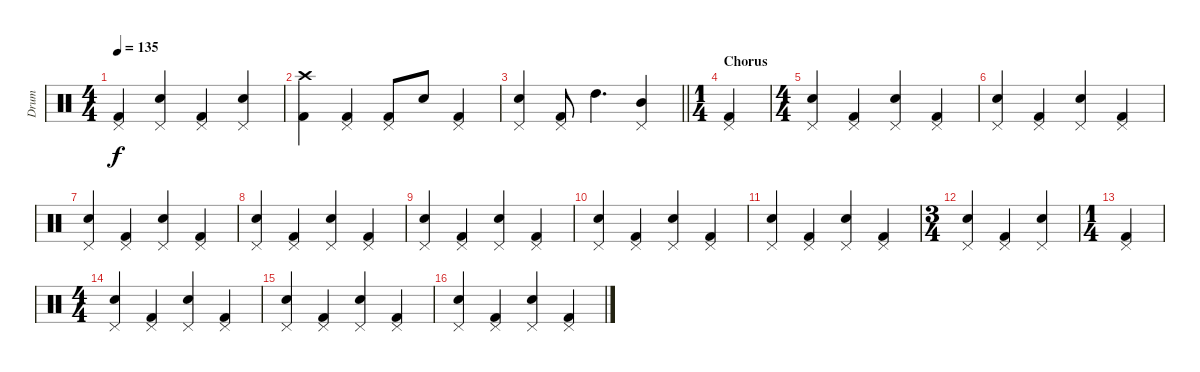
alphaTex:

\track ("Drum" "Drum") {instrument percussion}
\staff {score}
\articulation defaults
\ts (4 4)
\tempo 135
\clef neutral
\ks c
("Kick (hit) 2" "Pedal Hi-Hat (hit)").4{dy f} ("Electric Snare (hit)" "Pedal Hi-Hat (hit)").4 ("Kick (hit) 2" "Pedal Hi-Hat (hit)").4 ("Electric Snare (hit)" "Pedal Hi-Hat (hit)").4 |
("Crash high (hit)" "Kick (hit) 2").4 ("Pedal Hi-Hat (hit)" "Kick (hit) 2").4 ("Pedal Hi-Hat (hit)" "Kick (hit) 2").8 "Electric Snare (hit)".8 ("Pedal Hi-Hat (hit)" "Kick (hit) 2").4 |
\barLineRight lightlight
("Pedal Hi-Hat (hit)" "Snare (hit) 2").4 ("Pedal Hi-Hat (hit)" "Kick (hit) 2").8 "High Tom (hit)".4{d} ("Pedal Hi-Hat (hit)" "Mid Tom (hit)").4 |
\ts (1 4)
\section ("" "Chorus")
("Kick (hit) 2" "Pedal Hi-Hat (hit)").4 |
\ts (4 4)
("Electric Snare (hit)" "Pedal Hi-Hat (hit)").4 ("Kick (hit) 2" "Pedal Hi-Hat (hit)").4 ("Electric Snare (hit)" "Pedal Hi-Hat (hit)").4 ("Kick (hit) 2" "Pedal Hi-Hat (hit)").4 |
("Electric Snare (hit)" "Pedal Hi-Hat (hit)").4 ("Kick (hit) 2" "Pedal Hi-Hat (hit)").4 ("Electric Snare (hit)" "Pedal Hi-Hat (hit)").4 ("Kick (hit) 2" "Pedal Hi-Hat (hit)").4 |
("Electric Snare (hit)" "Pedal Hi-Hat (hit)").4 ("Kick (hit) 2" "Pedal Hi-Hat (hit)").4 ("Electric Snare (hit)" "Pedal Hi-Hat (hit)").4 ("Kick (hit) 2" "Pedal Hi-Hat (hit)").4 |
("Electric Snare (hit)" "Pedal Hi-Hat (hit)").4 ("Kick (hit) 2" "Pedal Hi-Hat (hit)").4 ("Electric Snare (hit)" "Pedal Hi-Hat (hit)").4 ("Kick (hit) 2" "Pedal Hi-Hat (hit)").4 |
("Electric Snare (hit)" "Pedal Hi-Hat (hit)").4 ("Kick (hit) 2" "Pedal Hi-Hat (hit)").4 ("Electric Snare (hit)" "Pedal Hi-Hat (hit)").4 ("Kick (hit) 2" "Pedal Hi-Hat (hit)").4 |
("Electric Snare (hit)" "Pedal Hi-Hat (hit)").4 ("Kick (hit) 2" "Pedal Hi-Hat (hit)").4 ("Electric Snare (hit)" "Pedal Hi-Hat (hit)").4 ("Kick (hit) 2" "Pedal Hi-Hat (hit)").4 |
("Electric Snare (hit)" "Pedal Hi-Hat (hit)").4 ("Kick (hit) 2" "Pedal Hi-Hat (hit)").4 ("Electric Snare (hit)" "Pedal Hi-Hat (hit)").4 ("Kick (hit) 2" "Pedal Hi-Hat (hit)").4 |
\ts (3 4)
("Electric Snare (hit)" "Pedal Hi-Hat (hit)").4 ("Kick (hit) 2" "Pedal Hi-Hat (hit)").4 ("Electric Snare (hit)" "Pedal Hi-Hat (hit)").4 |
\ts (1 4)
("Kick (hit) 2" "Pedal Hi-Hat (hit)").4 |
\ts (4 4)
("Electric Snare (hit)" "Pedal Hi-Hat (hit)").4 ("Kick (hit) 2" "Pedal Hi-Hat (hit)").4 ("Electric Snare (hit)" "Pedal Hi-Hat (hit)").4 ("Kick (hit) 2" "Pedal Hi-Hat (hit)").4 |
("Electric Snare (hit)" "Pedal Hi-Hat (hit)").4 ("Kick (hit) 2" "Pedal Hi-Hat (hit)").4 ("Electric Snare (hit)" "Pedal Hi-Hat (hit)").4 ("Kick (hit) 2" "Pedal Hi-Hat (hit)").4 |
("Electric Snare (hit)" "Pedal Hi-Hat (hit)").4 ("Kick (hit) 2" "Pedal Hi-Hat (hit)").4 ("Electric Snare (hit)" "Pedal Hi-Hat (hit)").4 ("Kick (hit) 2" "Pedal Hi-Hat (hit)").4
